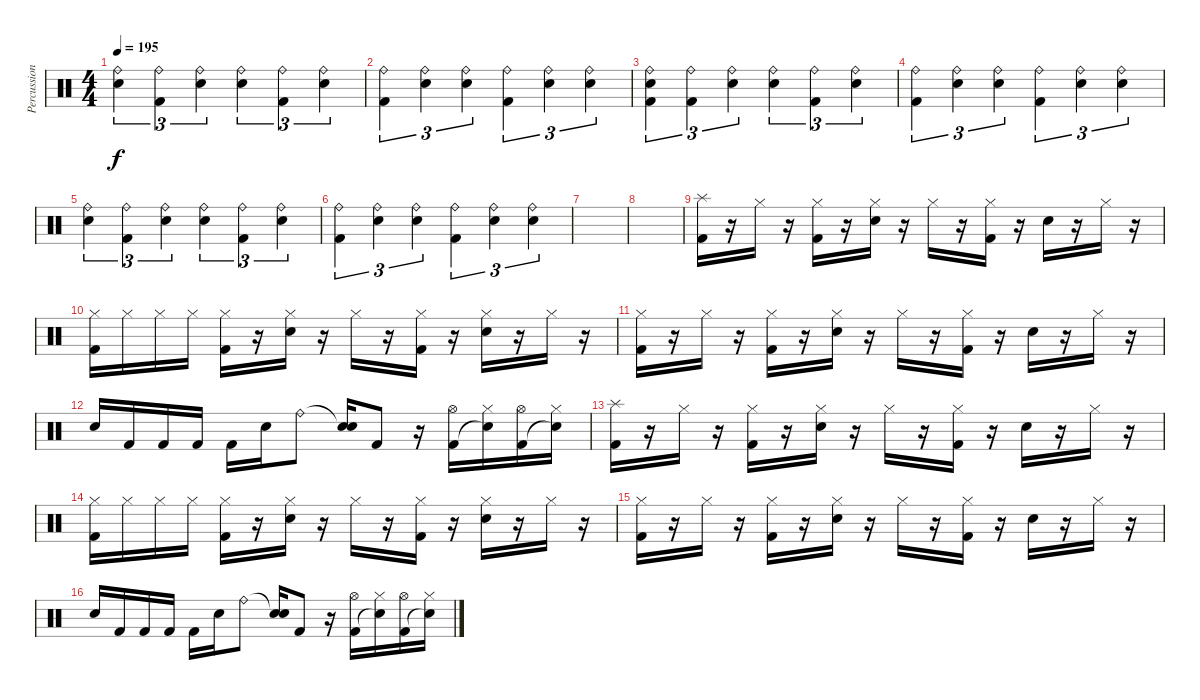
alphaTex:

\track ("Percussion" "Percussion") {instrument percussion}
\staff {score}
\articulation defaults
\ts (4 4)
\tempo 195
\clef neutral
\ks c
("Ride (bell)" "Electric Snare (hit)").4{tu (3 2) dy f} ("Ride (bell)" "Kick (hit) 2").4{tu (3 2)} ("Ride (bell)" "Electric Snare (hit)").4{tu (3 2)} ("Ride (bell)" "Electric Snare (hit)").4{tu (3 2)} ("Ride (bell)" "Kick (hit) 2").4{tu (3 2)} ("Ride (bell)" "Electric Snare (hit)").4{tu (3 2)} |
("Ride (bell)" "Kick (hit) 2").4{tu (3 2)} ("Ride (bell)" "Electric Snare (hit)").4{tu (3 2)} ("Ride (bell)" "Electric Snare (hit)").4{tu (3 2)} ("Ride (bell)" "Kick (hit) 2").4{tu (3 2)} ("Ride (bell)" "Electric Snare (hit)").4{tu (3 2)} ("Ride (bell)" "Electric Snare (hit)").4{tu (3 2)} |
("Ride (bell)" "Electric Snare (hit)" "Kick (hit) 2").4{tu (3 2)} ("Ride (bell)" "Kick (hit) 2").4{tu (3 2)} ("Ride (bell)" "Electric Snare (hit)").4{tu (3 2)} ("Ride (bell)" "Electric Snare (hit)").4{tu (3 2)} ("Ride (bell)" "Kick (hit) 2").4{tu (3 2)} ("Ride (bell)" "Electric Snare (hit)").4{tu (3 2)} |
("Ride (bell)" "Kick (hit) 2").4{tu (3 2)} ("Ride (bell)" "Electric Snare (hit)").4{tu (3 2)} ("Ride (bell)" "Electric Snare (hit)").4{tu (3 2)} ("Ride (bell)" "Kick (hit) 2").4{tu (3 2)} ("Ride (bell)" "Electric Snare (hit)").4{tu (3 2)} ("Ride (bell)" "Electric Snare (hit)").4{tu (3 2)} |
("Ride (bell)" "Electric Snare (hit)").4{tu (3 2)} ("Ride (bell)" "Kick (hit) 2").4{tu (3 2)} ("Ride (bell)" "Electric Snare (hit)").4{tu (3 2)} ("Ride (bell)" "Electric Snare (hit)").4{tu (3 2)} ("Ride (bell)" "Kick (hit) 2").4{tu (3 2)} ("Ride (bell)" "Electric Snare (hit)").4{tu (3 2)} |
("Ride (bell)" "Kick (hit) 2").4{tu (3 2)} ("Ride (bell)" "Electric Snare (hit)").4{tu (3 2)} ("Ride (bell)" "Electric Snare (hit)").4{tu (3 2)} ("Ride (bell)" "Kick (hit) 2").4{tu (3 2)} ("Ride (bell)" "Electric Snare (hit)").4{tu (3 2)} ("Ride (bell)" "Electric Snare (hit)").4{tu (3 2)} |
|
|
("Splash (hit)" "Kick (hit) 2").16 r.16 "Hi-Hat (closed)".16 r.16 ("Hi-Hat (closed)" "Kick (hit) 2").16 r.16 ("Hi-Hat (closed)" "Electric Snare (hit)").16 r.16 "Hi-Hat (closed)".16 r.16 ("Hi-Hat (closed)" "Kick (hit) 2").16 r.16 "Electric Snare (hit)".16 r.16 "Hi-Hat (closed)".16 r.16 |
("Hi-Hat (closed)" "Kick (hit) 2").16 "Hi-Hat (closed)".16 "Hi-Hat (closed)".16 "Hi-Hat (closed)".16 ("Hi-Hat (closed)" "Kick (hit) 2").16 r.16 ("Hi-Hat (closed)" "Electric Snare (hit)").16 r.16 "Hi-Hat (closed)".16 r.16 ("Hi-Hat (closed)" "Kick (hit) 2").16 r.16 ("Hi-Hat (closed)" "Electric Snare (hit)").16 r.16 "Hi-Hat (closed)".16 r.16 |
("Hi-Hat (closed)" "Kick (hit) 2").16 r.16 "Hi-Hat (closed)".16 r.16 ("Hi-Hat (closed)" "Kick (hit) 2").16 r.16 ("Hi-Hat (closed)" "Electric Snare (hit)").16 r.16 "Hi-Hat (closed)".16 r.16 ("Hi-Hat (closed)" "Kick (hit) 2").16 r.16 "Electric Snare (hit)".16 r.16 "Hi-Hat (closed)".16 r.16 |
"Electric Snare (hit)".16 "Kick (hit) 2".16 "Kick (hit) 2".16 "Kick (hit) 2".16 "Kick (hit) 2".16 "Electric Snare (hit)".16 "Ride (bell)".8 ("Snare (hit)"{t} "Electric Snare (hit)").16 "Kick (hit) 2".8 r.16 ("Hi-Hat (open)" "Kick (hit) 2").16 ("Hi-Hat (closed)" "Snare (hit)"{t}).16 ("Hi-Hat (open)" "Kick (hit) 2").16 ("Hi-Hat (closed)" "Snare (hit)"{t}).16 |
("Splash (hit)" "Kick (hit) 2").16 r.16 "Hi-Hat (closed)".16 r.16 ("Hi-Hat (closed)" "Kick (hit) 2").16 r.16 ("Hi-Hat (closed)" "Electric Snare (hit)").16 r.16 "Hi-Hat (closed)".16 r.16 ("Hi-Hat (closed)" "Kick (hit) 2").16 r.16 "Electric Snare (hit)".16 r.16 "Hi-Hat (closed)".16 r.16 |
("Hi-Hat (closed)" "Kick (hit) 2").16 "Hi-Hat (closed)".16 "Hi-Hat (closed)".16 "Hi-Hat (closed)".16 ("Hi-Hat (closed)" "Kick (hit) 2").16 r.16 ("Hi-Hat (closed)" "Electric Snare (hit)").16 r.16 "Hi-Hat (closed)".16 r.16 ("Hi-Hat (closed)" "Kick (hit) 2").16 r.16 ("Hi-Hat (closed)" "Electric Snare (hit)").16 r.16 "Hi-Hat (closed)".16 r.16 |
("Hi-Hat (closed)" "Kick (hit) 2").16 r.16 "Hi-Hat (closed)".16 r.16 ("Hi-Hat (closed)" "Kick (hit) 2").16 r.16 ("Hi-Hat (closed)" "Electric Snare (hit)").16 r.16 "Hi-Hat (closed)".16 r.16 ("Hi-Hat (closed)" "Kick (hit) 2").16 r.16 "Electric Snare (hit)".16 r.16 "Hi-Hat (closed)".16 r.16 |
"Electric Snare (hit)".16 "Kick (hit) 2".16 "Kick (hit) 2".16 "Kick (hit) 2".16 "Kick (hit) 2".16 "Electric Snare (hit)".16 "Ride (bell)".8 ("Snare (hit)"{t} "Electric Snare (hit)").16 "Kick (hit) 2".8 r.16 ("Hi-Hat (open)" "Kick (hit) 2").16 ("Hi-Hat (closed)" "Snare (hit)"{t}).16 ("Hi-Hat (open)" "Kick (hit) 2").16 ("Hi-Hat (closed)" "Snare (hit)"{t}).16
